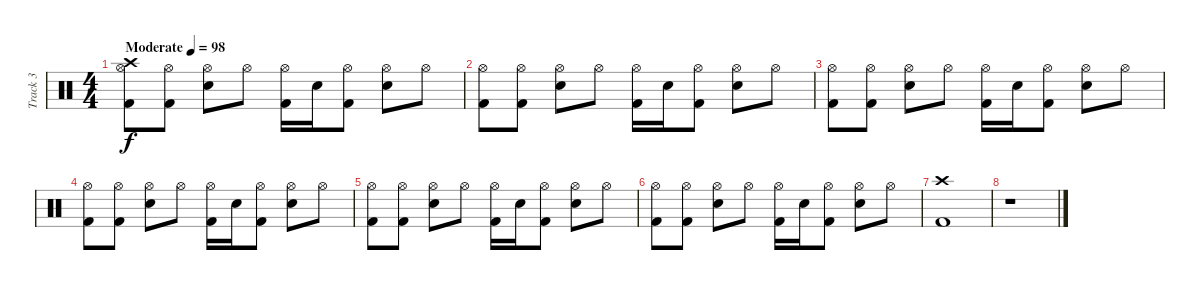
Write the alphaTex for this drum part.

\track ("Track 3" "Track 3") {instrument percussion}
\staff {score}
\articulation defaults
\ts (4 4)
\tempo (98 "Moderate")
\clef neutral
\ks c
("Crash high (hit)" "Kick (hit) 2" "Hi-Hat (open)").8{dy f} ("Kick (hit) 2" "Hi-Hat (open)").8 ("Electric Snare (hit)" "Hi-Hat (open)").8 "Hi-Hat (open)".8 ("Kick (hit) 2" "Hi-Hat (open)").16 "Electric Snare (hit)".16 ("Kick (hit) 2" "Hi-Hat (open)").8 ("Electric Snare (hit)" "Hi-Hat (open)").8 "Hi-Hat (open)".8 |
("Kick (hit) 2" "Hi-Hat (open)").8 ("Kick (hit) 2" "Hi-Hat (open)").8 ("Electric Snare (hit)" "Hi-Hat (open)").8 "Hi-Hat (open)".8 ("Kick (hit) 2" "Hi-Hat (open)").16 "Electric Snare (hit)".16 ("Kick (hit) 2" "Hi-Hat (open)").8 ("Electric Snare (hit)" "Hi-Hat (open)").8 "Hi-Hat (open)".8 |
("Kick (hit) 2" "Hi-Hat (open)").8 ("Kick (hit) 2" "Hi-Hat (open)").8 ("Electric Snare (hit)" "Hi-Hat (open)").8 "Hi-Hat (open)".8 ("Kick (hit) 2" "Hi-Hat (open)").16 "Electric Snare (hit)".16 ("Kick (hit) 2" "Hi-Hat (open)").8 ("Electric Snare (hit)" "Hi-Hat (open)").8 "Hi-Hat (open)".8 |
("Kick (hit) 2" "Hi-Hat (open)").8 ("Kick (hit) 2" "Hi-Hat (open)").8 ("Electric Snare (hit)" "Hi-Hat (open)").8 "Hi-Hat (open)".8 ("Kick (hit) 2" "Hi-Hat (open)").16 "Electric Snare (hit)".16 ("Kick (hit) 2" "Hi-Hat (open)").8 ("Electric Snare (hit)" "Hi-Hat (open)").8 "Hi-Hat (open)".8 |
("Kick (hit) 2" "Hi-Hat (open)").8 ("Kick (hit) 2" "Hi-Hat (open)").8 ("Electric Snare (hit)" "Hi-Hat (open)").8 "Hi-Hat (open)".8 ("Kick (hit) 2" "Hi-Hat (open)").16 "Electric Snare (hit)".16 ("Kick (hit) 2" "Hi-Hat (open)").8 ("Electric Snare (hit)" "Hi-Hat (open)").8 "Hi-Hat (open)".8 |
("Kick (hit) 2" "Hi-Hat (open)").8 ("Kick (hit) 2" "Hi-Hat (open)").8 ("Electric Snare (hit)" "Hi-Hat (open)").8 "Hi-Hat (open)".8 ("Kick (hit) 2" "Hi-Hat (open)").16 "Electric Snare (hit)".16 ("Kick (hit) 2" "Hi-Hat (open)").8 ("Electric Snare (hit)" "Hi-Hat (open)").8 "Hi-Hat (open)".8 |
("Kick (hit) 2" "Crash high (hit)").1 |
r.1
